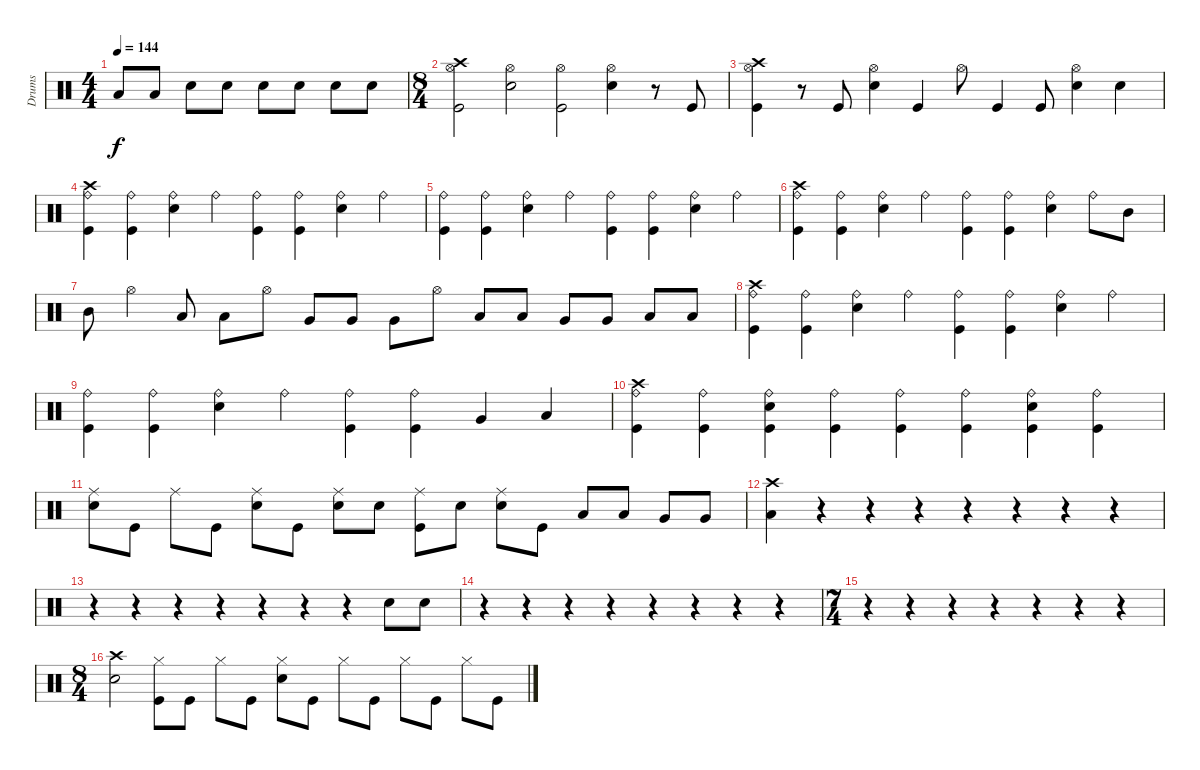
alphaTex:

\track ("Drums" "Drums") {instrument percussion}
\staff {score}
\articulation defaults
\ts (4 4)
\tempo 144
\clef neutral
\ks c "Low Tom (hit)".8{dy f} "Low Tom (hit)".8 "Snare (hit) 2".8 "Snare (hit) 2".8 "Snare (hit) 2".8 "Snare (hit) 2".8 "Snare (hit) 2".8 "Snare (hit) 2".8
|
\ts (8 4)
("Crash high (hit)" "Hi-Hat (open)" "Kick (hit)").2 ("Hi-Hat (open)" "Snare (hit) 2").2 ("Hi-Hat (open)" "Kick (hit)").2 ("Hi-Hat (open)" "Snare (hit) 2").4 r.8 "Kick (hit)".8 |
("Crash high (hit)" "Hi-Hat (open)" "Kick (hit)").4 r.8 "Kick (hit)".8 ("Hi-Hat (open)" "Snare (hit) 2").4 "Kick (hit)".4 "Hi-Hat (open)".8 "Kick (hit)".4 "Kick (hit)".8 ("Hi-Hat (open)" "Snare (hit) 2").4 "Snare (hit) 2".4 |
("Crash high (hit)" "Ride (bell)" "Kick (hit)").4 ("Ride (bell)" "Kick (hit)").4 ("Ride (bell)" "Snare (hit) 2").4 "Ride (bell)".4 ("Ride (bell)" "Kick (hit)").4 ("Ride (bell)" "Kick (hit)").4 ("Ride (bell)" "Snare (hit) 2").4 "Ride (bell)".4 |
("Ride (bell)" "Kick (hit)").4 ("Ride (bell)" "Kick (hit)").4 ("Ride (bell)" "Snare (hit) 2").4 "Ride (bell)".4 ("Ride (bell)" "Kick (hit)").4 ("Ride (bell)" "Kick (hit)").4 ("Ride (bell)" "Snare (hit) 2").4 "Ride (bell)".4 |
("Crash high (hit)" "Ride (bell)" "Kick (hit)").4 ("Ride (bell)" "Kick (hit)").4 ("Ride (bell)" "Snare (hit) 2").4 "Ride (bell)".4 ("Ride (bell)" "Kick (hit)").4 ("Ride (bell)" "Kick (hit)").4 ("Ride (bell)" "Snare (hit) 2").4 "Ride (bell)".8 "Mid Tom (hit)".8 |
"Mid Tom (hit)".8 "Hi-Hat (open)".4 "Low Tom (hit)".8 "Low Tom (hit)".8 "Hi-Hat (open)".8 "Very Low Tom (hit)".8 "Very Low Tom (hit)".8 "Very Low Tom (hit)".8 "Hi-Hat (open)".8 "Low Tom (hit)".8 "Low Tom (hit)".8 "Very Low Tom (hit)".8 "Very Low Tom (hit)".8 "Low Floor Tom (hit)".8 "Low Floor Tom (hit)".8 |
("Crash high (hit)" "Ride (bell)" "Kick (hit)").4 ("Ride (bell)" "Kick (hit)").4 ("Ride (bell)" "Snare (hit) 2").4 "Ride (bell)".4 ("Ride (bell)" "Kick (hit)").4 ("Ride (bell)" "Kick (hit)").4 ("Ride (bell)" "Snare (hit) 2").4 "Ride (bell)".4 |
("Ride (bell)" "Kick (hit)").4 ("Ride (bell)" "Kick (hit)").4 ("Ride (bell)" "Snare (hit) 2").4 "Ride (bell)".4 ("Ride (bell)" "Kick (hit)").4 ("Ride (bell)" "Kick (hit)").4 "Very Low Tom (hit)".4 "Low Floor Tom (hit)".4 |
("Crash high (hit)" "Ride (bell)" "Kick (hit)").4 ("Ride (bell)" "Kick (hit)").4 ("Ride (bell)" "Snare (hit) 2" "Kick (hit)").4 ("Ride (bell)" "Kick (hit)").4 ("Ride (bell)" "Kick (hit)").4 ("Ride (bell)" "Kick (hit)").4 ("Ride (bell)" "Snare (hit) 2" "Kick (hit)").4 ("Ride (bell)" "Kick (hit)").4 |
("Ride (middle)" "Snare (hit) 2").8 "Kick (hit)".8 "Ride (middle)".8 "Kick (hit)".8 ("Ride (middle)" "Snare (hit) 2").8 "Kick (hit)".8 ("Ride (middle)" "Snare (hit) 2").8 "Snare (hit) 2".8 ("Ride (middle)" "Kick (hit)").8 "Snare (hit) 2".8 ("Ride (middle)" "Snare (hit) 2").8 "Kick (hit)".8 "Low Tom (hit)".8 "Low Tom (hit)".8 "Very Low Tom (hit)".8 "Very Low Tom (hit)".8 |
("Crash high (hit)" "Low Floor Tom (hit)").4 r.4 r.4 r.4 r.4 r.4 r.4 r.4 |
r.4 r.4 r.4 r.4 r.4 r.4 r.4 "Snare (hit) 2".8 "Snare (hit) 2".8 |
r.4 r.4 r.4 r.4 r.4 r.4 r.4 r.4 |
\ts (7 4)
r.4 r.4 r.4 r.4 r.4 r.4 r.4 |
\ts (8 4)
("Crash high (hit)" "Snare (hit) 2").2 ("Hi-Hat (closed)" "Kick (hit)").8 "Kick (hit)".8 "Hi-Hat (closed)".8 "Kick (hit)".8 ("Hi-Hat (closed)" "Snare (hit) 2").8 "Kick (hit)".8 "Hi-Hat (closed)".8 "Kick (hit)".8 "Hi-Hat (closed)".8 "Kick (hit)".8 "Hi-Hat (closed)".8 "Kick (hit)".8
